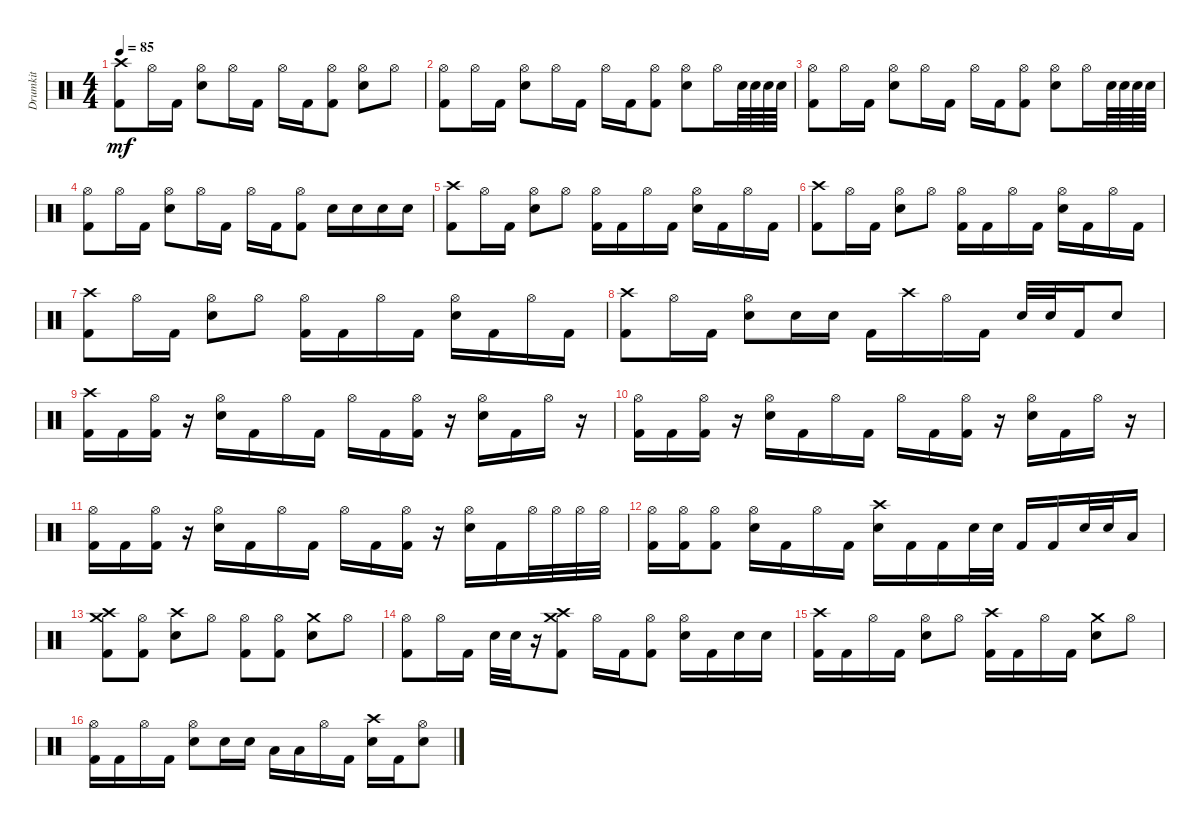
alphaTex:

\track ("Drumkit" "Drumkit") {instrument percussion}
\staff {score}
\articulation defaults
\ts (4 4)
\tempo 85
\clef neutral
\ks c
("Crash high (hit)" "Kick (hit) 2").8{dy mf} "Hi-Hat (open)".16 "Kick (hit) 2".16 ("Snare (hit) 2" "Hi-Hat (open)").8 "Hi-Hat (open)".16 "Kick (hit) 2".16 "Hi-Hat (open)".16 "Kick (hit) 2".16 ("Kick (hit) 2" "Hi-Hat (open)").8 ("Snare (hit) 2" "Hi-Hat (open)").8 "Hi-Hat (open)".8 |
("Hi-Hat (open)" "Kick (hit) 2").8 "Hi-Hat (open)".16 "Kick (hit) 2".16 ("Snare (hit) 2" "Hi-Hat (open)").8 "Hi-Hat (open)".16 "Kick (hit) 2".16 "Hi-Hat (open)".16 "Kick (hit) 2".16 ("Kick (hit) 2" "Hi-Hat (open)").8 ("Snare (hit) 2" "Hi-Hat (open)").8 "Hi-Hat (open)".16 "Snare (hit) 2".64 "Snare (hit) 2".64 "Snare (hit) 2".64 "Snare (hit) 2".64 |
("Hi-Hat (open)" "Kick (hit) 2").8 "Hi-Hat (open)".16 "Kick (hit) 2".16 ("Snare (hit) 2" "Hi-Hat (open)").8 "Hi-Hat (open)".16 "Kick (hit) 2".16 "Hi-Hat (open)".16 "Kick (hit) 2".16 ("Kick (hit) 2" "Hi-Hat (open)").8 ("Snare (hit) 2" "Hi-Hat (open)").8 "Hi-Hat (open)".16 "Snare (hit) 2".64 "Snare (hit) 2".64 "Snare (hit) 2".64 "Snare (hit) 2".64 |
("Hi-Hat (open)" "Kick (hit) 2").8 "Hi-Hat (open)".16 "Kick (hit) 2".16 ("Snare (hit) 2" "Hi-Hat (open)").8 "Hi-Hat (open)".16 "Kick (hit) 2".16 "Hi-Hat (open)".16 "Kick (hit) 2".16 ("Kick (hit) 2" "Hi-Hat (open)").8 "Snare (hit) 2".16 "Snare (hit) 2".16 "Snare (hit) 2".16 "Snare (hit) 2".16 |
("Crash high (hit)" "Kick (hit) 2").8 "Hi-Hat (open)".16 "Kick (hit) 2".16 ("Snare (hit) 2" "Hi-Hat (open)").8 "Hi-Hat (open)".8 ("Hi-Hat (open)" "Kick (hit) 2").16 "Kick (hit) 2".16 "Hi-Hat (open)".16 "Kick (hit) 2".16 ("Snare (hit) 2" "Hi-Hat (open)").16 "Kick (hit) 2".16 "Hi-Hat (open)".16 "Kick (hit) 2".16 |
("Crash high (hit)" "Kick (hit) 2").8 "Hi-Hat (open)".16 "Kick (hit) 2".16 ("Snare (hit) 2" "Hi-Hat (open)").8 "Hi-Hat (open)".8 ("Hi-Hat (open)" "Kick (hit) 2").16 "Kick (hit) 2".16 "Hi-Hat (open)".16 "Kick (hit) 2".16 ("Snare (hit) 2" "Hi-Hat (open)").16 "Kick (hit) 2".16 "Hi-Hat (open)".16 "Kick (hit) 2".16 |
("Crash high (hit)" "Kick (hit) 2").8 "Hi-Hat (open)".16 "Kick (hit) 2".16 ("Snare (hit) 2" "Hi-Hat (open)").8 "Hi-Hat (open)".8 ("Hi-Hat (open)" "Kick (hit) 2").16 "Kick (hit) 2".16 "Hi-Hat (open)".16 "Kick (hit) 2".16 ("Snare (hit) 2" "Hi-Hat (open)").16 "Kick (hit) 2".16 "Hi-Hat (open)".16 "Kick (hit) 2".16 |
("Crash high (hit)" "Kick (hit) 2").8 "Hi-Hat (open)".16 "Kick (hit) 2".16 ("Snare (hit) 2" "Hi-Hat (open)").8 "Snare (hit) 2".16 "Snare (hit) 2".16 "Kick (hit) 2".16 "Crash high (hit)".16 "Hi-Hat (open)".16 "Kick (hit) 2".16 "Snare (hit) 2".32 "Snare (hit) 2".32 "Kick (hit) 2".16 "Snare (hit) 2".8 |
("Kick (hit) 2" "Crash high (hit)").16 "Kick (hit) 2".16 ("Kick (hit) 2" "Hi-Hat (open)").16 r.16 ("Hi-Hat (open)" "Snare (hit) 2").16 "Kick (hit) 2".16 "Hi-Hat (open)".16 "Kick (hit) 2".16 "Hi-Hat (open)".16 "Kick (hit) 2".16 ("Kick (hit) 2" "Hi-Hat (open)").16 r.16 ("Snare (hit) 2" "Hi-Hat (open)").16 "Kick (hit) 2".16 "Hi-Hat (open)".16 r.16 |
("Kick (hit) 2" "Hi-Hat (open)").16 "Kick (hit) 2".16 ("Kick (hit) 2" "Hi-Hat (open)").16 r.16 ("Hi-Hat (open)" "Snare (hit) 2").16 "Kick (hit) 2".16 "Hi-Hat (open)".16 "Kick (hit) 2".16 "Hi-Hat (open)".16 "Kick (hit) 2".16 ("Kick (hit) 2" "Hi-Hat (open)").16 r.16 ("Snare (hit) 2" "Hi-Hat (open)").16 "Kick (hit) 2".16 "Hi-Hat (open)".16 r.16 |
("Kick (hit) 2" "Hi-Hat (open)").16 "Kick (hit) 2".16 ("Kick (hit) 2" "Hi-Hat (open)").16 r.16 ("Hi-Hat (open)" "Snare (hit) 2").16 "Kick (hit) 2".16 "Hi-Hat (open)".16 "Kick (hit) 2".16 "Hi-Hat (open)".16 "Kick (hit) 2".16 ("Kick (hit) 2" "Hi-Hat (open)").16 r.16 ("Snare (hit) 2" "Hi-Hat (open)").16 "Kick (hit) 2".16 "Hi-Hat (open)".32 "Hi-Hat (open)".32 "Hi-Hat (open)".32 "Hi-Hat (open)".32 |
("Hi-Hat (open)" "Kick (hit) 2").16 ("Hi-Hat (open)" "Kick (hit) 2").16 ("Hi-Hat (open)" "Kick (hit) 2").8 ("Hi-Hat (open)" "Snare (hit) 2").16 "Kick (hit) 2".16 "Hi-Hat (open)".16 "Kick (hit) 2".16 ("Snare (hit) 2" "Crash high (hit)").16 "Kick (hit) 2".16 "Kick (hit) 2".16 "Snare (hit) 2".32 "Snare (hit) 2".32 "Kick (hit) 2".16 "Kick (hit) 2".16 "Snare (hit) 2".32 "Snare (hit) 2".32 "Low Tom (hit)".16 |
("Kick (hit) 2" "Crash high (hit)" "Crash medium (hit)").8 ("Kick (hit) 2" "Hi-Hat (open)").8 ("Snare (hit) 2" "Crash high (hit)").8 "Hi-Hat (open)".8 ("Kick (hit) 2" "Hi-Hat (open)").8 ("Kick (hit) 2" "Hi-Hat (open)").8 ("Snare (hit) 2" "Crash medium (hit)").8 "Hi-Hat (open)".8 |
("Kick (hit) 2" "Hi-Hat (open)").8 "Hi-Hat (open)".16 "Kick (hit) 2".16 "Snare (hit) 2".32 "Snare (hit) 2".32 r.16 ("Kick (hit) 2" "Crash high (hit)" "Crash medium (hit)").8 "Hi-Hat (open)".16 "Kick (hit) 2".16 ("Kick (hit) 2" "Hi-Hat (open)").8 ("Snare (hit) 2" "Hi-Hat (open)").16 "Kick (hit) 2".16 "Snare (hit) 2".16 "Snare (hit) 2".16 |
("Crash high (hit)" "Kick (hit) 2").16 "Kick (hit) 2".16 "Hi-Hat (open)".16 "Kick (hit) 2".16 ("Snare (hit) 2" "Hi-Hat (open)").8 "Hi-Hat (open)".8 ("Crash high (hit)" "Kick (hit) 2").16 "Kick (hit) 2".16 "Hi-Hat (open)".16 "Kick (hit) 2".16 ("Snare (hit) 2" "Crash medium (hit)").8 "Hi-Hat (open)".8 |
("Hi-Hat (open)" "Kick (hit) 2").16 "Kick (hit) 2".16 "Hi-Hat (open)".16 "Kick (hit) 2".16 ("Snare (hit) 2" "Hi-Hat (open)").8 "Snare (hit) 2".16 "Snare (hit) 2".16 "Low Tom (hit)".16 "Low Tom (hit)".16 "Hi-Hat (open)".16 "Kick (hit) 2".16 ("Snare (hit) 2" "Crash high (hit)").16 "Kick (hit) 2".16 ("Snare (hit) 2" "Hi-Hat (open)").8
